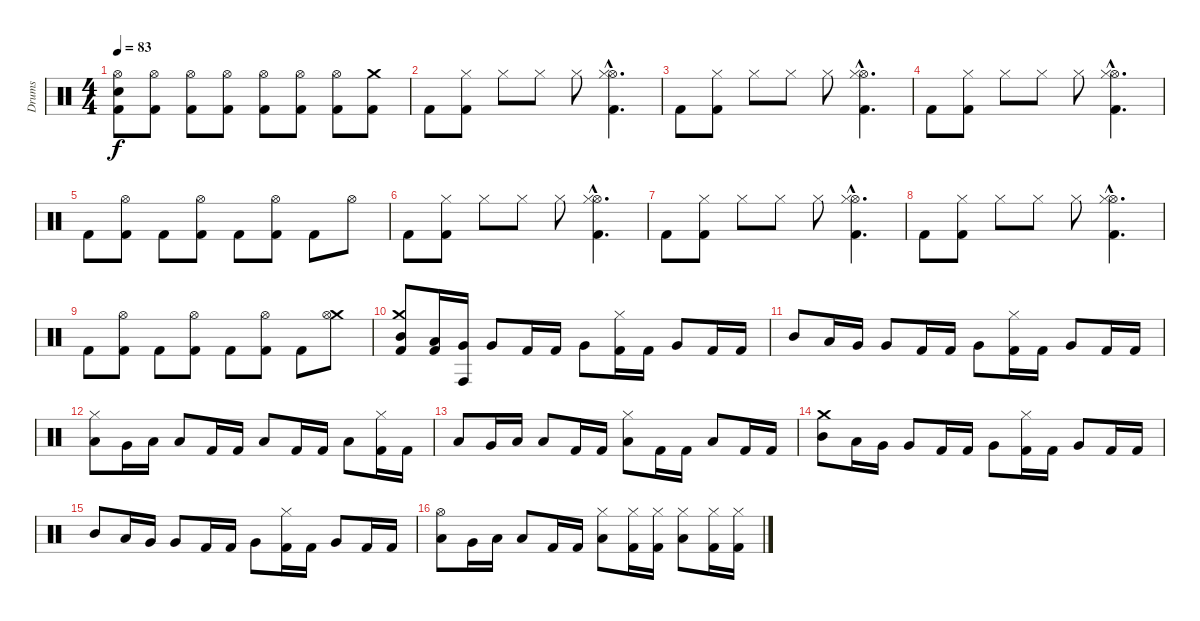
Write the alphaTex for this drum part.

\track ("Drums" "Drums") {instrument percussion}
\staff {score}
\articulation defaults
\ts (4 4)
\tempo 83
\clef neutral
\ks c
("Hi-Hat (open)" "Kick (hit) 2" "Snare (hit) 2").8{dy f} ("Hi-Hat (open)" "Kick (hit) 2").8 ("Hi-Hat (open)" "Kick (hit) 2").8 ("Hi-Hat (open)" "Kick (hit) 2").8 ("Hi-Hat (open)" "Kick (hit) 2").8 ("Hi-Hat (open)" "Kick (hit) 2").8 ("Hi-Hat (open)" "Kick (hit) 2").8 ("Crash medium (hit)" "Kick (hit) 2").8 |
"Kick (hit) 2".8 ("Kick (hit) 2" "Hi-Hat (closed)").8 "Hi-Hat (closed)".8 "Hi-Hat (closed)".8 "Hi-Hat (closed)".8 ("Hi-Hat (open)"{hac} "Hi-Hat (closed)"{hac} "Kick (hit) 2"{hac}).4{d} |
"Kick (hit) 2".8 ("Kick (hit) 2" "Hi-Hat (closed)").8 "Hi-Hat (closed)".8 "Hi-Hat (closed)".8 "Hi-Hat (closed)".8 ("Hi-Hat (open)"{hac} "Hi-Hat (closed)"{hac} "Kick (hit) 2"{hac}).4{d} |
"Kick (hit) 2".8 ("Kick (hit) 2" "Hi-Hat (closed)").8 "Hi-Hat (closed)".8 "Hi-Hat (closed)".8 "Hi-Hat (closed)".8 ("Hi-Hat (open)"{hac} "Hi-Hat (closed)"{hac} "Kick (hit) 2"{hac}).4{d} |
"Kick (hit) 2".8 ("Kick (hit) 2" "Hi-Hat (open)").8 "Kick (hit) 2".8 ("Kick (hit) 2" "Hi-Hat (open)").8 "Kick (hit) 2".8 ("Kick (hit) 2" "Hi-Hat (open)").8 "Kick (hit) 2".8 "Hi-Hat (open)".8 |
"Kick (hit) 2".8 ("Kick (hit) 2" "Hi-Hat (closed)").8 "Hi-Hat (closed)".8 "Hi-Hat (closed)".8 "Hi-Hat (closed)".8 ("Hi-Hat (open)"{hac} "Hi-Hat (closed)"{hac} "Kick (hit) 2"{hac}).4{d} |
"Kick (hit) 2".8 ("Kick (hit) 2" "Hi-Hat (closed)").8 "Hi-Hat (closed)".8 "Hi-Hat (closed)".8 "Hi-Hat (closed)".8 ("Hi-Hat (open)"{hac} "Hi-Hat (closed)"{hac} "Kick (hit) 2"{hac}).4{d} |
"Kick (hit) 2".8 ("Kick (hit) 2" "Hi-Hat (closed)").8 "Hi-Hat (closed)".8 "Hi-Hat (closed)".8 "Hi-Hat (closed)".8 ("Hi-Hat (open)"{hac} "Hi-Hat (closed)"{hac} "Kick (hit) 2"{hac}).4{d} |
"Kick (hit) 2".8 ("Kick (hit) 2" "Hi-Hat (open)").8 "Kick (hit) 2".8 ("Kick (hit) 2" "Hi-Hat (open)").8 "Kick (hit) 2".8 ("Kick (hit) 2" "Hi-Hat (open)").8 "Kick (hit) 2".8 ("Crash medium (hit)" "Hi-Hat (open)").8 |
("Crash medium (hit)" "Mid Tom (hit)" "Kick (hit) 2").8 ("Low Tom (hit)" "Kick (hit) 2").16 ("Very Low Tom (hit)" "Conga high (hit)").16 "Very Low Tom (hit)".8 "Kick (hit) 2".16 "Kick (hit) 2".16 "Very Low Tom (hit)".8 ("Hi-Hat (closed)" "Kick (hit) 2").16 "Kick (hit) 2".16 "Very Low Tom (hit)".8 "Kick (hit) 2".16 "Kick (hit) 2".16 |
"Mid Tom (hit)".8 "Low Tom (hit)".16 "Very Low Tom (hit)".16 "Very Low Tom (hit)".8 "Kick (hit) 2".16 "Kick (hit) 2".16 "Very Low Tom (hit)".8 ("Hi-Hat (closed)" "Kick (hit) 2").16 "Kick (hit) 2".16 "Very Low Tom (hit)".8 "Kick (hit) 2".16 "Kick (hit) 2".16 |
("Hi-Hat (closed)" "Low Tom (hit)").8 "Very Low Tom (hit)".16 "Low Floor Tom (hit)".16 "Low Floor Tom (hit)".8 "Kick (hit) 2".16 "Kick (hit) 2".16 "Low Floor Tom (hit)".8 "Kick (hit) 2".16 "Kick (hit) 2".16 "Low Floor Tom (hit)".8 ("Hi-Hat (closed)" "Kick (hit) 2").16 "Kick (hit) 2".16 |
"Low Tom (hit)".8 "Very Low Tom (hit)".16 "Low Floor Tom (hit)".16 "Low Floor Tom (hit)".8 "Kick (hit) 2".16 "Kick (hit) 2".16 ("Hi-Hat (closed)" "Low Floor Tom (hit)").8 "Kick (hit) 2".16 "Kick (hit) 2".16 "Low Floor Tom (hit)".8 "Kick (hit) 2".16 "Kick (hit) 2".16 |
("Crash medium (hit)" "Mid Tom (hit)").8 "Low Tom (hit)".16 "Very Low Tom (hit)".16 "Very Low Tom (hit)".8 "Kick (hit) 2".16 "Kick (hit) 2".16 "Very Low Tom (hit)".8 ("Hi-Hat (closed)" "Kick (hit) 2").16 "Kick (hit) 2".16 "Very Low Tom (hit)".8 "Kick (hit) 2".16 "Kick (hit) 2".16 |
"Mid Tom (hit)".8 "Low Tom (hit)".16 "Very Low Tom (hit)".16 "Very Low Tom (hit)".8 "Kick (hit) 2".16 "Kick (hit) 2".16 "Very Low Tom (hit)".8 ("Hi-Hat (closed)" "Kick (hit) 2").16 "Kick (hit) 2".16 "Very Low Tom (hit)".8 "Kick (hit) 2".16 "Kick (hit) 2".16 |
("Hi-Hat (open)" "Low Tom (hit)").8 "Very Low Tom (hit)".16 "Low Floor Tom (hit)".16 "Low Floor Tom (hit)".8 "Kick (hit) 2".16 "Kick (hit) 2".16 ("Hi-Hat (closed)" "Low Floor Tom (hit)").8 ("Hi-Hat (closed)" "Kick (hit) 2").16 ("Hi-Hat (closed)" "Kick (hit) 2").16 ("Hi-Hat (closed)" "Low Floor Tom (hit)").8 ("Hi-Hat (closed)" "Kick (hit) 2").16 ("Hi-Hat (closed)" "Kick (hit) 2").16
